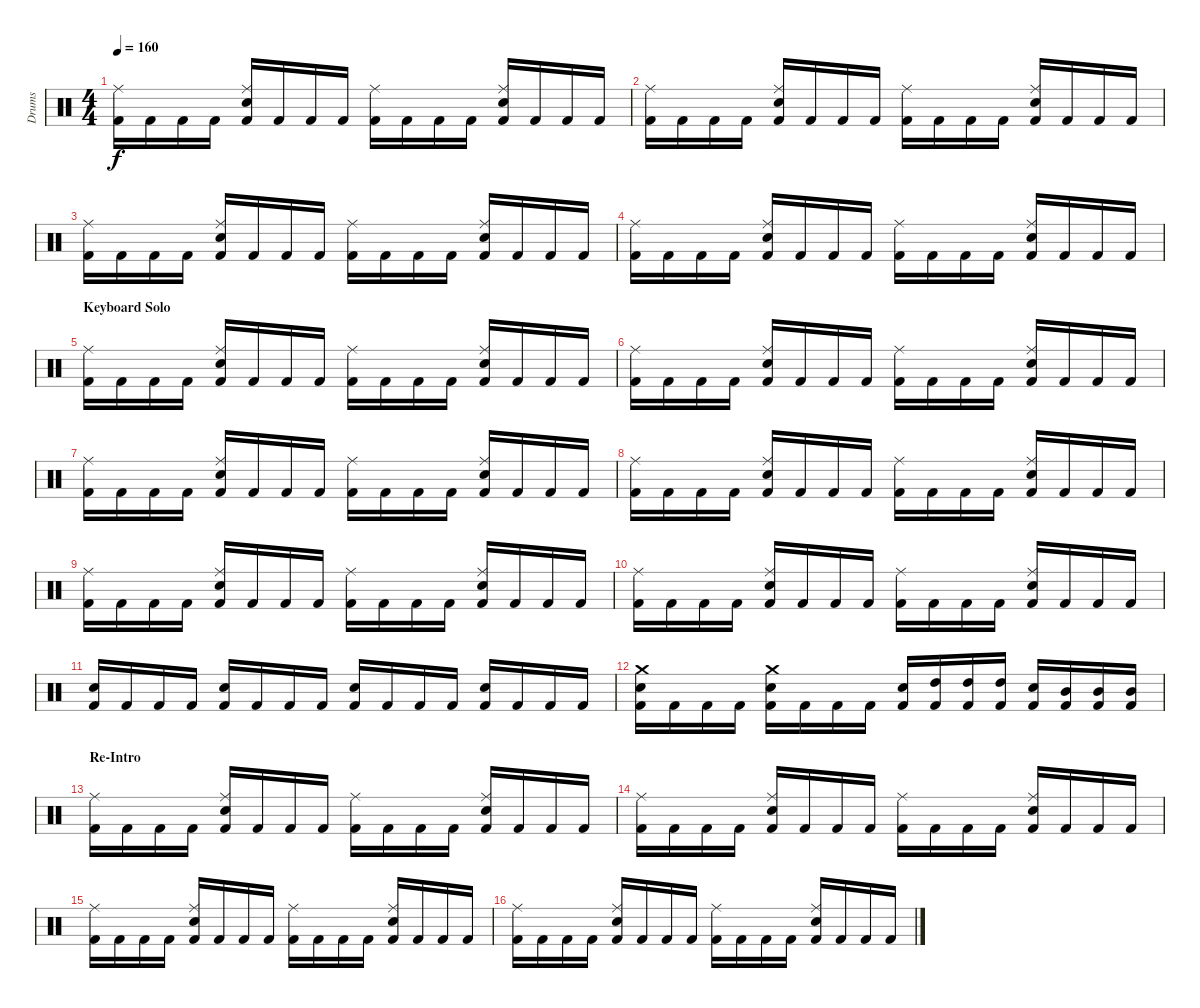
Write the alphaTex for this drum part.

\track ("Drums" "Drums") {instrument percussion}
\staff {score}
\articulation defaults
\ts (4 4)
\tempo 160
\clef neutral
\ks c
("Kick (hit) 2" "Ride (middle)").16{dy f} "Kick (hit) 2".16 "Kick (hit) 2".16 "Kick (hit) 2".16 ("Kick (hit) 2" "Ride (middle)" "Electric Snare (hit)").16 "Kick (hit) 2".16 "Kick (hit) 2".16 "Kick (hit) 2".16 ("Kick (hit) 2" "Ride (middle)").16 "Kick (hit) 2".16 "Kick (hit) 2".16 "Kick (hit) 2".16 ("Kick (hit) 2" "Ride (middle)" "Electric Snare (hit)").16 "Kick (hit) 2".16 "Kick (hit) 2".16 "Kick (hit) 2".16 |
("Kick (hit) 2" "Ride (middle)").16 "Kick (hit) 2".16 "Kick (hit) 2".16 "Kick (hit) 2".16 ("Kick (hit) 2" "Ride (middle)" "Electric Snare (hit)").16 "Kick (hit) 2".16 "Kick (hit) 2".16 "Kick (hit) 2".16 ("Kick (hit) 2" "Ride (middle)").16 "Kick (hit) 2".16 "Kick (hit) 2".16 "Kick (hit) 2".16 ("Kick (hit) 2" "Ride (middle)" "Electric Snare (hit)").16 "Kick (hit) 2".16 "Kick (hit) 2".16 "Kick (hit) 2".16 |
("Kick (hit) 2" "Ride (middle)").16 "Kick (hit) 2".16 "Kick (hit) 2".16 "Kick (hit) 2".16 ("Kick (hit) 2" "Ride (middle)" "Electric Snare (hit)").16 "Kick (hit) 2".16 "Kick (hit) 2".16 "Kick (hit) 2".16 ("Kick (hit) 2" "Ride (middle)").16 "Kick (hit) 2".16 "Kick (hit) 2".16 "Kick (hit) 2".16 ("Kick (hit) 2" "Ride (middle)" "Electric Snare (hit)").16 "Kick (hit) 2".16 "Kick (hit) 2".16 "Kick (hit) 2".16 |
("Kick (hit) 2" "Ride (middle)").16 "Kick (hit) 2".16 "Kick (hit) 2".16 "Kick (hit) 2".16 ("Kick (hit) 2" "Ride (middle)" "Electric Snare (hit)").16 "Kick (hit) 2".16 "Kick (hit) 2".16 "Kick (hit) 2".16 ("Kick (hit) 2" "Ride (middle)").16 "Kick (hit) 2".16 "Kick (hit) 2".16 "Kick (hit) 2".16 ("Kick (hit) 2" "Ride (middle)" "Electric Snare (hit)").16 "Kick (hit) 2".16 "Kick (hit) 2".16 "Kick (hit) 2".16 |
\section ("" "Keyboard Solo")
("Kick (hit) 2" "Ride (middle)").16 "Kick (hit) 2".16 "Kick (hit) 2".16 "Kick (hit) 2".16 ("Kick (hit) 2" "Electric Snare (hit)" "Ride (middle)").16 "Kick (hit) 2".16 "Kick (hit) 2".16 "Kick (hit) 2".16 ("Kick (hit) 2" "Ride (middle)").16 "Kick (hit) 2".16 "Kick (hit) 2".16 "Kick (hit) 2".16 ("Kick (hit) 2" "Electric Snare (hit)" "Ride (middle)").16 "Kick (hit) 2".16 "Kick (hit) 2".16 "Kick (hit) 2".16 |
("Kick (hit) 2" "Ride (middle)").16 "Kick (hit) 2".16 "Kick (hit) 2".16 "Kick (hit) 2".16 ("Kick (hit) 2" "Electric Snare (hit)" "Ride (middle)").16 "Kick (hit) 2".16 "Kick (hit) 2".16 "Kick (hit) 2".16 ("Kick (hit) 2" "Ride (middle)").16 "Kick (hit) 2".16 "Kick (hit) 2".16 "Kick (hit) 2".16 ("Kick (hit) 2" "Electric Snare (hit)" "Ride (middle)").16 "Kick (hit) 2".16 "Kick (hit) 2".16 "Kick (hit) 2".16 |
("Kick (hit) 2" "Ride (middle)").16 "Kick (hit) 2".16 "Kick (hit) 2".16 "Kick (hit) 2".16 ("Kick (hit) 2" "Electric Snare (hit)" "Ride (middle)").16 "Kick (hit) 2".16 "Kick (hit) 2".16 "Kick (hit) 2".16 ("Kick (hit) 2" "Ride (middle)").16 "Kick (hit) 2".16 "Kick (hit) 2".16 "Kick (hit) 2".16 ("Kick (hit) 2" "Electric Snare (hit)" "Ride (middle)").16 "Kick (hit) 2".16 "Kick (hit) 2".16 "Kick (hit) 2".16 |
("Kick (hit) 2" "Ride (middle)").16 "Kick (hit) 2".16 "Kick (hit) 2".16 "Kick (hit) 2".16 ("Kick (hit) 2" "Electric Snare (hit)" "Ride (middle)").16 "Kick (hit) 2".16 "Kick (hit) 2".16 "Kick (hit) 2".16 ("Kick (hit) 2" "Ride (middle)").16 "Kick (hit) 2".16 "Kick (hit) 2".16 "Kick (hit) 2".16 ("Kick (hit) 2" "Electric Snare (hit)" "Ride (middle)").16 "Kick (hit) 2".16 "Kick (hit) 2".16 "Kick (hit) 2".16 |
("Kick (hit) 2" "Ride (middle)").16 "Kick (hit) 2".16 "Kick (hit) 2".16 "Kick (hit) 2".16 ("Kick (hit) 2" "Electric Snare (hit)" "Ride (middle)").16 "Kick (hit) 2".16 "Kick (hit) 2".16 "Kick (hit) 2".16 ("Kick (hit) 2" "Ride (middle)").16 "Kick (hit) 2".16 "Kick (hit) 2".16 "Kick (hit) 2".16 ("Kick (hit) 2" "Electric Snare (hit)" "Ride (middle)").16 "Kick (hit) 2".16 "Kick (hit) 2".16 "Kick (hit) 2".16 |
("Kick (hit) 2" "Ride (middle)").16 "Kick (hit) 2".16 "Kick (hit) 2".16 "Kick (hit) 2".16 ("Kick (hit) 2" "Electric Snare (hit)" "Ride (middle)").16 "Kick (hit) 2".16 "Kick (hit) 2".16 "Kick (hit) 2".16 ("Kick (hit) 2" "Ride (middle)").16 "Kick (hit) 2".16 "Kick (hit) 2".16 "Kick (hit) 2".16 ("Kick (hit) 2" "Electric Snare (hit)" "Ride (middle)").16 "Kick (hit) 2".16 "Kick (hit) 2".16 "Kick (hit) 2".16 |
("Kick (hit) 2" "Electric Snare (hit)").16 "Kick (hit) 2".16 "Kick (hit) 2".16 "Kick (hit) 2".16 ("Kick (hit) 2" "Electric Snare (hit)").16 "Kick (hit) 2".16 "Kick (hit) 2".16 "Kick (hit) 2".16 ("Kick (hit) 2" "Electric Snare (hit)").16 "Kick (hit) 2".16 "Kick (hit) 2".16 "Kick (hit) 2".16 ("Kick (hit) 2" "Electric Snare (hit)").16 "Kick (hit) 2".16 "Kick (hit) 2".16 "Kick (hit) 2".16 |
("Kick (hit) 2" "Electric Snare (hit)" "Crash medium (hit)").16 "Kick (hit) 2".16 "Kick (hit) 2".16 "Kick (hit) 2".16 ("Kick (hit) 2" "Electric Snare (hit)" "Crash medium (hit)").16 "Kick (hit) 2".16 "Kick (hit) 2".16 "Kick (hit) 2".16 ("Kick (hit) 2" "Electric Snare (hit)").16 ("Kick (hit) 2" "High Tom (hit)").16 ("Kick (hit) 2" "High Tom (hit)").16 ("Kick (hit) 2" "High Tom (hit)").16 ("Kick (hit) 2" "Electric Snare (hit)").16 ("Kick (hit) 2" "Mid Tom (hit)").16 ("Kick (hit) 2" "Mid Tom (hit)").16 ("Kick (hit) 2" "Mid Tom (hit)").16 |
\section ("" "Re-Intro")
("Kick (hit) 2" "Ride (middle)").16 "Kick (hit) 2".16 "Kick (hit) 2".16 "Kick (hit) 2".16 ("Kick (hit) 2" "Electric Snare (hit)" "Ride (middle)").16 "Kick (hit) 2".16 "Kick (hit) 2".16 "Kick (hit) 2".16 ("Kick (hit) 2" "Ride (middle)").16 "Kick (hit) 2".16 "Kick (hit) 2".16 "Kick (hit) 2".16 ("Kick (hit) 2" "Electric Snare (hit)" "Ride (middle)").16 "Kick (hit) 2".16 "Kick (hit) 2".16 "Kick (hit) 2".16 |
("Kick (hit) 2" "Ride (middle)").16 "Kick (hit) 2".16 "Kick (hit) 2".16 "Kick (hit) 2".16 ("Kick (hit) 2" "Electric Snare (hit)" "Ride (middle)").16 "Kick (hit) 2".16 "Kick (hit) 2".16 "Kick (hit) 2".16 ("Kick (hit) 2" "Ride (middle)").16 "Kick (hit) 2".16 "Kick (hit) 2".16 "Kick (hit) 2".16 ("Kick (hit) 2" "Electric Snare (hit)" "Ride (middle)").16 "Kick (hit) 2".16 "Kick (hit) 2".16 "Kick (hit) 2".16 |
("Kick (hit) 2" "Ride (middle)").16 "Kick (hit) 2".16 "Kick (hit) 2".16 "Kick (hit) 2".16 ("Kick (hit) 2" "Electric Snare (hit)" "Ride (middle)").16 "Kick (hit) 2".16 "Kick (hit) 2".16 "Kick (hit) 2".16 ("Kick (hit) 2" "Ride (middle)").16 "Kick (hit) 2".16 "Kick (hit) 2".16 "Kick (hit) 2".16 ("Kick (hit) 2" "Electric Snare (hit)" "Ride (middle)").16 "Kick (hit) 2".16 "Kick (hit) 2".16 "Kick (hit) 2".16 |
("Kick (hit) 2" "Ride (middle)").16 "Kick (hit) 2".16 "Kick (hit) 2".16 "Kick (hit) 2".16 ("Kick (hit) 2" "Electric Snare (hit)" "Ride (middle)").16 "Kick (hit) 2".16 "Kick (hit) 2".16 "Kick (hit) 2".16 ("Kick (hit) 2" "Ride (middle)").16 "Kick (hit) 2".16 "Kick (hit) 2".16 "Kick (hit) 2".16 ("Kick (hit) 2" "Electric Snare (hit)" "Ride (middle)").16 "Kick (hit) 2".16 "Kick (hit) 2".16 "Kick (hit) 2".16
